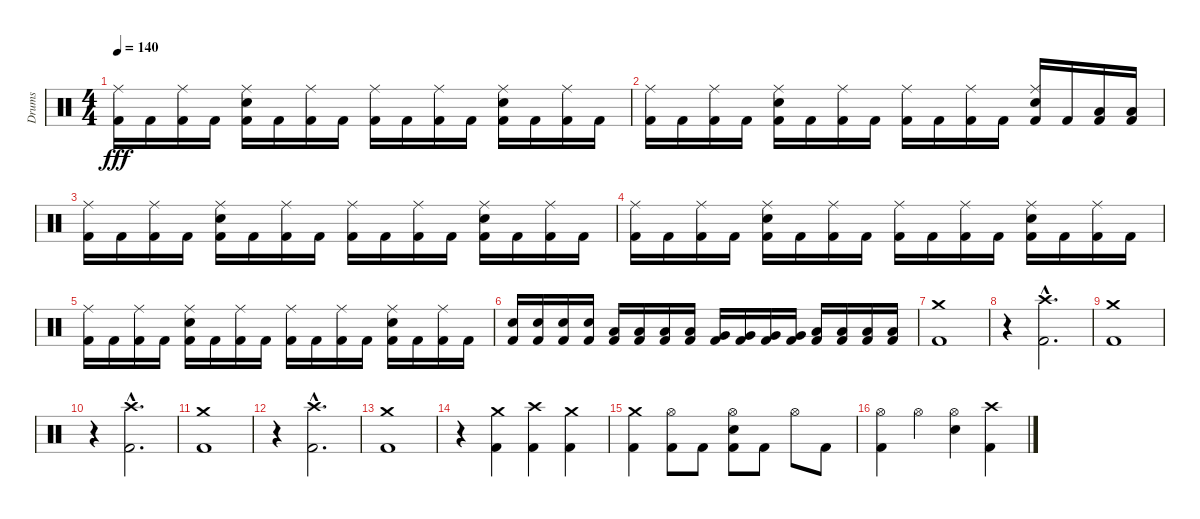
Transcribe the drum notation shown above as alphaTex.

\track ("Drums" "Drums") {instrument percussion}
\staff {score}
\articulation defaults
\ts (4 4)
\tempo 140
\clef neutral
\ks c
("Kick (hit) 2" "Ride (middle)").16{dy fff} "Kick (hit) 2".16 ("Kick (hit) 2" "Ride (middle)").16 "Kick (hit) 2".16 ("Kick (hit) 2" "Electric Snare (hit)" "Ride (middle)").16 "Kick (hit) 2".16 ("Kick (hit) 2" "Ride (middle)").16 "Kick (hit) 2".16 ("Kick (hit) 2" "Ride (middle)").16 "Kick (hit) 2".16 ("Kick (hit) 2" "Ride (middle)").16 "Kick (hit) 2".16 ("Kick (hit) 2" "Electric Snare (hit)" "Ride (middle)").16 "Kick (hit) 2".16 ("Kick (hit) 2" "Ride (middle)").16 "Kick (hit) 2".16 |
("Kick (hit) 2" "Ride (middle)").16 "Kick (hit) 2".16 ("Kick (hit) 2" "Ride (middle)").16 "Kick (hit) 2".16 ("Kick (hit) 2" "Electric Snare (hit)" "Ride (middle)").16 "Kick (hit) 2".16 ("Kick (hit) 2" "Ride (middle)").16 "Kick (hit) 2".16 ("Kick (hit) 2" "Ride (middle)").16 "Kick (hit) 2".16 ("Kick (hit) 2" "Ride (middle)").16 "Kick (hit) 2".16 ("Kick (hit) 2" "Electric Snare (hit)" "Ride (middle)").16 "Kick (hit) 2".16 ("Kick (hit) 2" "Low Floor Tom (hit)").16 ("Kick (hit) 2" "Low Floor Tom (hit)").16 |
("Kick (hit) 2" "Ride (middle)").16 "Kick (hit) 2".16 ("Kick (hit) 2" "Ride (middle)").16 "Kick (hit) 2".16 ("Kick (hit) 2" "Electric Snare (hit)" "Ride (middle)").16 "Kick (hit) 2".16 ("Kick (hit) 2" "Ride (middle)").16 "Kick (hit) 2".16 ("Kick (hit) 2" "Ride (middle)").16 "Kick (hit) 2".16 ("Kick (hit) 2" "Ride (middle)").16 "Kick (hit) 2".16 ("Kick (hit) 2" "Electric Snare (hit)" "Ride (middle)").16 "Kick (hit) 2".16 ("Kick (hit) 2" "Ride (middle)").16 "Kick (hit) 2".16 |
("Kick (hit) 2" "Ride (middle)").16 "Kick (hit) 2".16 ("Kick (hit) 2" "Ride (middle)").16 "Kick (hit) 2".16 ("Kick (hit) 2" "Electric Snare (hit)" "Ride (middle)").16 "Kick (hit) 2".16 ("Kick (hit) 2" "Ride (middle)").16 "Kick (hit) 2".16 ("Kick (hit) 2" "Ride (middle)").16 "Kick (hit) 2".16 ("Kick (hit) 2" "Ride (middle)").16 "Kick (hit) 2".16 ("Kick (hit) 2" "Electric Snare (hit)" "Ride (middle)").16 "Kick (hit) 2".16 ("Kick (hit) 2" "Ride (middle)").16 "Kick (hit) 2".16 |
("Kick (hit) 2" "Ride (middle)").16 "Kick (hit) 2".16 ("Kick (hit) 2" "Ride (middle)").16 "Kick (hit) 2".16 ("Kick (hit) 2" "Electric Snare (hit)" "Ride (middle)").16 "Kick (hit) 2".16 ("Kick (hit) 2" "Ride (middle)").16 "Kick (hit) 2".16 ("Kick (hit) 2" "Ride (middle)").16 "Kick (hit) 2".16 ("Kick (hit) 2" "Ride (middle)").16 "Kick (hit) 2".16 ("Kick (hit) 2" "Electric Snare (hit)" "Ride (middle)").16 "Kick (hit) 2".16 ("Kick (hit) 2" "Ride (middle)").16 "Kick (hit) 2".16 |
("Kick (hit) 2" "Electric Snare (hit)").16 ("Kick (hit) 2" "Electric Snare (hit)").16 ("Kick (hit) 2" "Electric Snare (hit)").16 ("Kick (hit) 2" "Electric Snare (hit)").16 ("Kick (hit) 2" "Low Floor Tom (hit)").16 ("Kick (hit) 2" "Low Floor Tom (hit)").16 ("Kick (hit) 2" "Low Floor Tom (hit)").16 ("Kick (hit) 2" "Low Floor Tom (hit)").16 ("Kick (hit) 2" "Very Low Tom (hit)").16 ("Kick (hit) 2" "Very Low Tom (hit)").16 ("Kick (hit) 2" "Very Low Tom (hit)").16 ("Kick (hit) 2" "Very Low Tom (hit)").16 ("Kick (hit) 2" "Low Tom (hit)").16 ("Kick (hit) 2" "Low Tom (hit)").16 ("Kick (hit) 2" "Low Tom (hit)").16 ("Kick (hit) 2" "Low Tom (hit)").16 |
("Kick (hit) 2" "Crash medium (hit)").1 |
r.4 ("Kick (hit) 2"{hac} "Crash high (hit)"{hac}).2{d} |
("Kick (hit) 2" "Crash medium (hit)").1 |
r.4 ("Kick (hit) 2"{hac} "Crash high (hit)"{hac}).2{d} |
("Kick (hit) 2" "Crash medium (hit)").1 |
r.4 ("Kick (hit) 2"{hac} "Crash high (hit)"{hac}).2{d} |
("Kick (hit) 2" "Crash medium (hit)").1 |
r.4 ("Kick (hit) 2" "Crash medium (hit)").4 ("Kick (hit) 2" "Crash high (hit)").4 ("Kick (hit) 2" "Crash medium (hit)").4 |
("Kick (hit) 2" "Crash medium (hit)").4 ("Kick (hit) 2" "Hi-Hat (open)").8 "Kick (hit) 2".8 ("Kick (hit) 2" "Electric Snare (hit)" "Hi-Hat (open)").8 "Kick (hit) 2".8 "Hi-Hat (open)".8 "Kick (hit) 2".8 |
("Kick (hit) 2" "Hi-Hat (open)").4 "Hi-Hat (open)".4 ("Electric Snare (hit)" "Hi-Hat (open)").4 ("Kick (hit) 2" "Crash high (hit)").4
